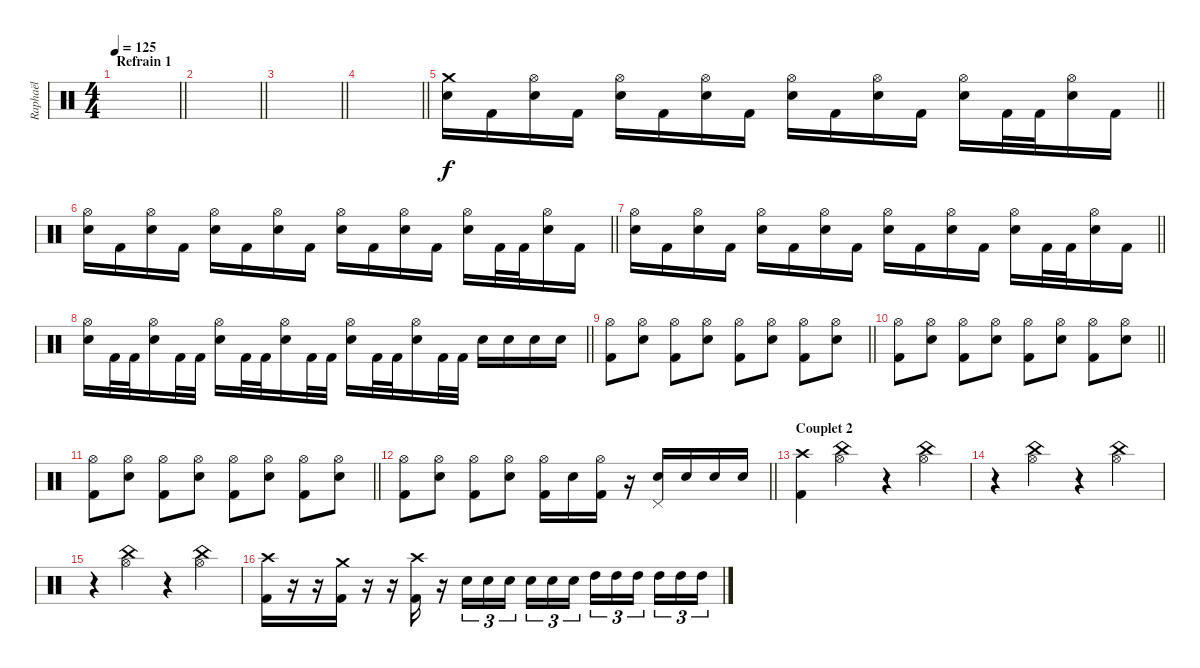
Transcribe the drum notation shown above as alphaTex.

\track ("Raphaël" "Raphaël") {instrument percussion}
\staff {score}
\articulation defaults
\ts (4 4)
\section ("" "Refrain 1")
\tempo 125
\clef neutral
\barLineRight lightlight
\ks c
|
\barLineRight lightlight
|
\barLineRight lightlight
|
\barLineRight lightlight
|
\barLineRight lightlight
("Electric Snare (hit)" "Crash medium (hit)").16 "Kick (hit) 2".16 ("Electric Snare (hit)" "Hi-Hat (open)").16 "Kick (hit) 2".16 ("Electric Snare (hit)" "Hi-Hat (open)").16 "Kick (hit) 2".16 ("Electric Snare (hit)" "Hi-Hat (open)").16 "Kick (hit) 2".16 ("Electric Snare (hit)" "Hi-Hat (open)").16 "Kick (hit) 2".16 ("Electric Snare (hit)" "Hi-Hat (open)").16 "Kick (hit) 2".16 ("Electric Snare (hit)" "Hi-Hat (open)").16 "Kick (hit) 2".32 "Kick (hit) 2".32 ("Electric Snare (hit)" "Hi-Hat (open)").16 "Kick (hit) 2".16 |
\barLineRight lightlight
("Electric Snare (hit)" "Hi-Hat (open)").16 "Kick (hit) 2".16 ("Electric Snare (hit)" "Hi-Hat (open)").16 "Kick (hit) 2".16 ("Electric Snare (hit)" "Hi-Hat (open)").16 "Kick (hit) 2".16 ("Electric Snare (hit)" "Hi-Hat (open)").16 "Kick (hit) 2".16 ("Electric Snare (hit)" "Hi-Hat (open)").16 "Kick (hit) 2".16 ("Electric Snare (hit)" "Hi-Hat (open)").16 "Kick (hit) 2".16 ("Electric Snare (hit)" "Hi-Hat (open)").16 "Kick (hit) 2".32 "Kick (hit) 2".32 ("Electric Snare (hit)" "Hi-Hat (open)").16 "Kick (hit) 2".16 |
\barLineRight lightlight
("Electric Snare (hit)" "Hi-Hat (open)").16 "Kick (hit) 2".16 ("Electric Snare (hit)" "Hi-Hat (open)").16 "Kick (hit) 2".16 ("Electric Snare (hit)" "Hi-Hat (open)").16 "Kick (hit) 2".16 ("Electric Snare (hit)" "Hi-Hat (open)").16 "Kick (hit) 2".16 ("Electric Snare (hit)" "Hi-Hat (open)").16 "Kick (hit) 2".16 ("Electric Snare (hit)" "Hi-Hat (open)").16 "Kick (hit) 2".16 ("Electric Snare (hit)" "Hi-Hat (open)").16 "Kick (hit) 2".32 "Kick (hit) 2".32 ("Electric Snare (hit)" "Hi-Hat (open)").16 "Kick (hit) 2".16 |
\barLineRight lightlight
("Electric Snare (hit)" "Hi-Hat (open)").16 "Kick (hit) 2".32 "Kick (hit) 2".32 ("Electric Snare (hit)" "Hi-Hat (open)").16 "Kick (hit) 2".32 "Kick (hit) 2".32 ("Electric Snare (hit)" "Hi-Hat (open)").16 "Kick (hit) 2".32 "Kick (hit) 2".32 ("Electric Snare (hit)" "Hi-Hat (open)").16 "Kick (hit) 2".32 "Kick (hit) 2".32 ("Electric Snare (hit)" "Hi-Hat (open)").16 "Kick (hit) 2".32 "Kick (hit) 2".32 ("Electric Snare (hit)" "Hi-Hat (open)").16 "Kick (hit) 2".32 "Kick (hit) 2".32 "Electric Snare (hit)".16 "Electric Snare (hit)".16 "Electric Snare (hit)".16 "Electric Snare (hit)".16 |
\barLineRight lightlight
("Kick (hit) 2" "Hi-Hat (open)").8 ("Electric Snare (hit)" "Hi-Hat (open)").8 ("Kick (hit) 2" "Hi-Hat (open)").8 ("Electric Snare (hit)" "Hi-Hat (open)").8 ("Kick (hit) 2" "Hi-Hat (open)").8 ("Electric Snare (hit)" "Hi-Hat (open)").8 ("Kick (hit) 2" "Hi-Hat (open)").8 ("Electric Snare (hit)" "Hi-Hat (open)").8 |
\barLineRight lightlight
("Kick (hit) 2" "Hi-Hat (open)").8 ("Electric Snare (hit)" "Hi-Hat (open)").8 ("Kick (hit) 2" "Hi-Hat (open)").8 ("Electric Snare (hit)" "Hi-Hat (open)").8 ("Kick (hit) 2" "Hi-Hat (open)").8 ("Electric Snare (hit)" "Hi-Hat (open)").8 ("Kick (hit) 2" "Hi-Hat (open)").8 ("Electric Snare (hit)" "Hi-Hat (open)").8 |
\barLineRight lightlight
("Kick (hit) 2" "Hi-Hat (open)").8 ("Electric Snare (hit)" "Hi-Hat (open)").8 ("Kick (hit) 2" "Hi-Hat (open)").8 ("Electric Snare (hit)" "Hi-Hat (open)").8 ("Kick (hit) 2" "Hi-Hat (open)").8 ("Electric Snare (hit)" "Hi-Hat (open)").8 ("Kick (hit) 2" "Hi-Hat (open)").8 ("Electric Snare (hit)" "Hi-Hat (open)").8 |
\barLineRight lightlight
("Kick (hit) 2" "Hi-Hat (open)").8 ("Electric Snare (hit)" "Hi-Hat (open)").8 ("Kick (hit) 2" "Hi-Hat (open)").8 ("Electric Snare (hit)" "Hi-Hat (open)").8 ("Kick (hit) 2" "Hi-Hat (open)").16 "Electric Snare (hit)".16 ("Kick (hit) 2" "Hi-Hat (open)").16 r.16 ("Electric Snare (hit)" "Pedal Hi-Hat (hit)").16 "Electric Snare (hit)".16 "Electric Snare (hit)".16 "Electric Snare (hit)".16 |
\section ("" "Couplet 2")
("Kick (hit) 2" "Crash high (hit)").4 ("China (hit)" "Hi-Hat (open)").4 r.4 ("China (hit)" "Hi-Hat (open)").4 |
r.4 ("China (hit)" "Hi-Hat (open)").4 r.4 ("China (hit)" "Hi-Hat (open)").4 |
r.4 ("China (hit)" "Hi-Hat (open)").4 r.4 ("China (hit)" "Hi-Hat (open)").4 |
("Kick (hit) 2" "Crash high (hit)").16 r.16 r.16 ("Kick (hit) 2" "Crash medium (hit)").16 r.16 r.16 ("Kick (hit) 2" "Crash high (hit)").16 r.16 "Electric Snare (hit)".16{tu (3 2)} "Electric Snare (hit)".16{tu (3 2)} "Electric Snare (hit)".16{tu (3 2) beam splitsecondary} "Electric Snare (hit)".16{tu (3 2)} "Electric Snare (hit)".16{tu (3 2)} "Electric Snare (hit)".16{tu (3 2)} "High Tom (hit)".16{tu (3 2)} "High Tom (hit)".16{tu (3 2)} "High Tom (hit)".16{tu (3 2) beam splitsecondary} "High Tom (hit)".16{tu (3 2)} "High Tom (hit)".16{tu (3 2)} "High Tom (hit)".16{tu (3 2)}
